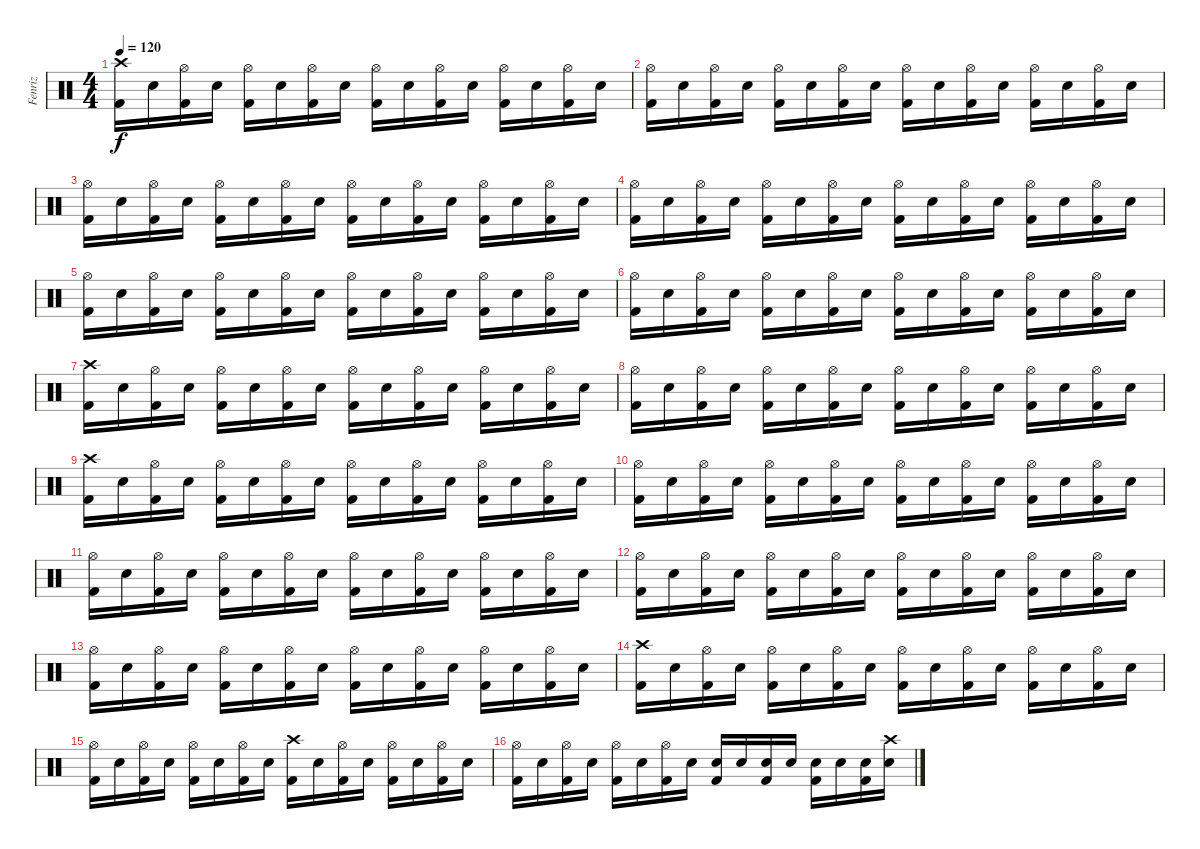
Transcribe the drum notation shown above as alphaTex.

\track ("Fenriz" "Fenriz") {instrument percussion}
\staff {score}
\articulation defaults
\ts (4 4)
\tempo 120
\clef neutral
\ks c
("Kick (hit) 2" "Crash high (hit)").16{dy f} "Electric Snare (hit)".16 ("Kick (hit) 2" "Hi-Hat (open)").16 "Electric Snare (hit)".16 ("Kick (hit) 2" "Hi-Hat (open)").16 "Electric Snare (hit)".16 ("Kick (hit) 2" "Hi-Hat (open)").16 "Electric Snare (hit)".16 ("Kick (hit) 2" "Hi-Hat (open)").16 "Electric Snare (hit)".16 ("Kick (hit) 2" "Hi-Hat (open)").16 "Electric Snare (hit)".16 ("Kick (hit) 2" "Hi-Hat (open)").16 "Electric Snare (hit)".16 ("Kick (hit) 2" "Hi-Hat (open)").16 "Electric Snare (hit)".16 |
("Kick (hit) 2" "Hi-Hat (open)").16 "Electric Snare (hit)".16 ("Kick (hit) 2" "Hi-Hat (open)").16 "Electric Snare (hit)".16 ("Kick (hit) 2" "Hi-Hat (open)").16 "Electric Snare (hit)".16 ("Kick (hit) 2" "Hi-Hat (open)").16 "Electric Snare (hit)".16 ("Kick (hit) 2" "Hi-Hat (open)").16 "Electric Snare (hit)".16 ("Kick (hit) 2" "Hi-Hat (open)").16 "Electric Snare (hit)".16 ("Kick (hit) 2" "Hi-Hat (open)").16 "Electric Snare (hit)".16 ("Kick (hit) 2" "Hi-Hat (open)").16 "Electric Snare (hit)".16 |
("Kick (hit) 2" "Hi-Hat (open)").16 "Electric Snare (hit)".16 ("Kick (hit) 2" "Hi-Hat (open)").16 "Electric Snare (hit)".16 ("Kick (hit) 2" "Hi-Hat (open)").16 "Electric Snare (hit)".16 ("Kick (hit) 2" "Hi-Hat (open)").16 "Electric Snare (hit)".16 ("Kick (hit) 2" "Hi-Hat (open)").16 "Electric Snare (hit)".16 ("Kick (hit) 2" "Hi-Hat (open)").16 "Electric Snare (hit)".16 ("Kick (hit) 2" "Hi-Hat (open)").16 "Electric Snare (hit)".16 ("Kick (hit) 2" "Hi-Hat (open)").16 "Electric Snare (hit)".16 |
("Kick (hit) 2" "Hi-Hat (open)").16 "Electric Snare (hit)".16 ("Kick (hit) 2" "Hi-Hat (open)").16 "Electric Snare (hit)".16 ("Kick (hit) 2" "Hi-Hat (open)").16 "Electric Snare (hit)".16 ("Kick (hit) 2" "Hi-Hat (open)").16 "Electric Snare (hit)".16 ("Kick (hit) 2" "Hi-Hat (open)").16 "Electric Snare (hit)".16 ("Kick (hit) 2" "Hi-Hat (open)").16 "Electric Snare (hit)".16 ("Kick (hit) 2" "Hi-Hat (open)").16 "Electric Snare (hit)".16 ("Kick (hit) 2" "Hi-Hat (open)").16 "Electric Snare (hit)".16 |
("Kick (hit) 2" "Hi-Hat (open)").16 "Electric Snare (hit)".16 ("Kick (hit) 2" "Hi-Hat (open)").16 "Electric Snare (hit)".16 ("Kick (hit) 2" "Hi-Hat (open)").16 "Electric Snare (hit)".16 ("Kick (hit) 2" "Hi-Hat (open)").16 "Electric Snare (hit)".16 ("Kick (hit) 2" "Hi-Hat (open)").16 "Electric Snare (hit)".16 ("Kick (hit) 2" "Hi-Hat (open)").16 "Electric Snare (hit)".16 ("Kick (hit) 2" "Hi-Hat (open)").16 "Electric Snare (hit)".16 ("Kick (hit) 2" "Hi-Hat (open)").16 "Electric Snare (hit)".16 |
("Kick (hit) 2" "Hi-Hat (open)").16 "Electric Snare (hit)".16 ("Kick (hit) 2" "Hi-Hat (open)").16 "Electric Snare (hit)".16 ("Kick (hit) 2" "Hi-Hat (open)").16 "Electric Snare (hit)".16 ("Kick (hit) 2" "Hi-Hat (open)").16 "Electric Snare (hit)".16 ("Kick (hit) 2" "Hi-Hat (open)").16 "Electric Snare (hit)".16 ("Kick (hit) 2" "Hi-Hat (open)").16 "Electric Snare (hit)".16 ("Kick (hit) 2" "Hi-Hat (open)").16 "Electric Snare (hit)".16 ("Kick (hit) 2" "Hi-Hat (open)").16 "Electric Snare (hit)".16 |
("Kick (hit) 2" "Crash high (hit)").16 "Electric Snare (hit)".16 ("Kick (hit) 2" "Hi-Hat (open)").16 "Electric Snare (hit)".16 ("Kick (hit) 2" "Hi-Hat (open)").16 "Electric Snare (hit)".16 ("Kick (hit) 2" "Hi-Hat (open)").16 "Electric Snare (hit)".16 ("Kick (hit) 2" "Hi-Hat (open)").16 "Electric Snare (hit)".16 ("Kick (hit) 2" "Hi-Hat (open)").16 "Electric Snare (hit)".16 ("Kick (hit) 2" "Hi-Hat (open)").16 "Electric Snare (hit)".16 ("Kick (hit) 2" "Hi-Hat (open)").16 "Electric Snare (hit)".16 |
("Kick (hit) 2" "Hi-Hat (open)").16 "Electric Snare (hit)".16 ("Kick (hit) 2" "Hi-Hat (open)").16 "Electric Snare (hit)".16 ("Kick (hit) 2" "Hi-Hat (open)").16 "Electric Snare (hit)".16 ("Kick (hit) 2" "Hi-Hat (open)").16 "Electric Snare (hit)".16 ("Kick (hit) 2" "Hi-Hat (open)").16 "Electric Snare (hit)".16 ("Kick (hit) 2" "Hi-Hat (open)").16 "Electric Snare (hit)".16 ("Kick (hit) 2" "Hi-Hat (open)").16 "Electric Snare (hit)".16 ("Kick (hit) 2" "Hi-Hat (open)").16 "Electric Snare (hit)".16 |
("Kick (hit) 2" "Crash high (hit)").16 "Electric Snare (hit)".16 ("Kick (hit) 2" "Hi-Hat (open)").16 "Electric Snare (hit)".16 ("Kick (hit) 2" "Hi-Hat (open)").16 "Electric Snare (hit)".16 ("Kick (hit) 2" "Hi-Hat (open)").16 "Electric Snare (hit)".16 ("Kick (hit) 2" "Hi-Hat (open)").16 "Electric Snare (hit)".16 ("Kick (hit) 2" "Hi-Hat (open)").16 "Electric Snare (hit)".16 ("Kick (hit) 2" "Hi-Hat (open)").16 "Electric Snare (hit)".16 ("Kick (hit) 2" "Hi-Hat (open)").16 "Electric Snare (hit)".16 |
("Kick (hit) 2" "Hi-Hat (open)").16 "Electric Snare (hit)".16 ("Kick (hit) 2" "Hi-Hat (open)").16 "Electric Snare (hit)".16 ("Kick (hit) 2" "Hi-Hat (open)").16 "Electric Snare (hit)".16 ("Kick (hit) 2" "Hi-Hat (open)").16 "Electric Snare (hit)".16 ("Kick (hit) 2" "Hi-Hat (open)").16 "Electric Snare (hit)".16 ("Kick (hit) 2" "Hi-Hat (open)").16 "Electric Snare (hit)".16 ("Kick (hit) 2" "Hi-Hat (open)").16 "Electric Snare (hit)".16 ("Kick (hit) 2" "Hi-Hat (open)").16 "Electric Snare (hit)".16 |
("Kick (hit) 2" "Hi-Hat (open)").16 "Electric Snare (hit)".16 ("Kick (hit) 2" "Hi-Hat (open)").16 "Electric Snare (hit)".16 ("Kick (hit) 2" "Hi-Hat (open)").16 "Electric Snare (hit)".16 ("Kick (hit) 2" "Hi-Hat (open)").16 "Electric Snare (hit)".16 ("Kick (hit) 2" "Hi-Hat (open)").16 "Electric Snare (hit)".16 ("Kick (hit) 2" "Hi-Hat (open)").16 "Electric Snare (hit)".16 ("Kick (hit) 2" "Hi-Hat (open)").16 "Electric Snare (hit)".16 ("Kick (hit) 2" "Hi-Hat (open)").16 "Electric Snare (hit)".16 |
("Kick (hit) 2" "Hi-Hat (open)").16 "Electric Snare (hit)".16 ("Kick (hit) 2" "Hi-Hat (open)").16 "Electric Snare (hit)".16 ("Kick (hit) 2" "Hi-Hat (open)").16 "Electric Snare (hit)".16 ("Kick (hit) 2" "Hi-Hat (open)").16 "Electric Snare (hit)".16 ("Kick (hit) 2" "Hi-Hat (open)").16 "Electric Snare (hit)".16 ("Kick (hit) 2" "Hi-Hat (open)").16 "Electric Snare (hit)".16 ("Kick (hit) 2" "Hi-Hat (open)").16 "Electric Snare (hit)".16 ("Kick (hit) 2" "Hi-Hat (open)").16 "Electric Snare (hit)".16 |
("Kick (hit) 2" "Hi-Hat (open)").16 "Electric Snare (hit)".16 ("Kick (hit) 2" "Hi-Hat (open)").16 "Electric Snare (hit)".16 ("Kick (hit) 2" "Hi-Hat (open)").16 "Electric Snare (hit)".16 ("Kick (hit) 2" "Hi-Hat (open)").16 "Electric Snare (hit)".16 ("Kick (hit) 2" "Hi-Hat (open)").16 "Electric Snare (hit)".16 ("Kick (hit) 2" "Hi-Hat (open)").16 "Electric Snare (hit)".16 ("Kick (hit) 2" "Hi-Hat (open)").16 "Electric Snare (hit)".16 ("Kick (hit) 2" "Hi-Hat (open)").16 "Electric Snare (hit)".16 |
("Kick (hit) 2" "Crash high (hit)").16 "Electric Snare (hit)".16 ("Kick (hit) 2" "Hi-Hat (open)").16 "Electric Snare (hit)".16 ("Kick (hit) 2" "Hi-Hat (open)").16 "Electric Snare (hit)".16 ("Kick (hit) 2" "Hi-Hat (open)").16 "Electric Snare (hit)".16 ("Kick (hit) 2" "Hi-Hat (open)").16 "Electric Snare (hit)".16 ("Kick (hit) 2" "Hi-Hat (open)").16 "Electric Snare (hit)".16 ("Kick (hit) 2" "Hi-Hat (open)").16 "Electric Snare (hit)".16 ("Kick (hit) 2" "Hi-Hat (open)").16 "Electric Snare (hit)".16 |
("Kick (hit) 2" "Hi-Hat (open)").16 "Electric Snare (hit)".16 ("Kick (hit) 2" "Hi-Hat (open)").16 "Electric Snare (hit)".16 ("Kick (hit) 2" "Hi-Hat (open)").16 "Electric Snare (hit)".16 ("Kick (hit) 2" "Hi-Hat (open)").16 "Electric Snare (hit)".16 ("Kick (hit) 2" "Crash high (hit)").16 "Electric Snare (hit)".16 ("Kick (hit) 2" "Hi-Hat (open)").16 "Electric Snare (hit)".16 ("Kick (hit) 2" "Hi-Hat (open)").16 "Electric Snare (hit)".16 ("Kick (hit) 2" "Hi-Hat (open)").16 "Electric Snare (hit)".16 |
("Kick (hit) 2" "Hi-Hat (open)").16 "Electric Snare (hit)".16 ("Kick (hit) 2" "Hi-Hat (open)").16 "Electric Snare (hit)".16 ("Kick (hit) 2" "Hi-Hat (open)").16 "Electric Snare (hit)".16 ("Kick (hit) 2" "Hi-Hat (open)").16 "Electric Snare (hit)".16 ("Kick (hit) 2" "Electric Snare (hit)").16 "Electric Snare (hit)".16 ("Kick (hit) 2" "Electric Snare (hit)").16 "Electric Snare (hit)".16 ("Kick (hit) 2" "Electric Snare (hit)").16 "Electric Snare (hit)".16 ("Kick (hit) 2" "Electric Snare (hit)").16 ("Electric Snare (hit)" "Crash high (hit)").16
